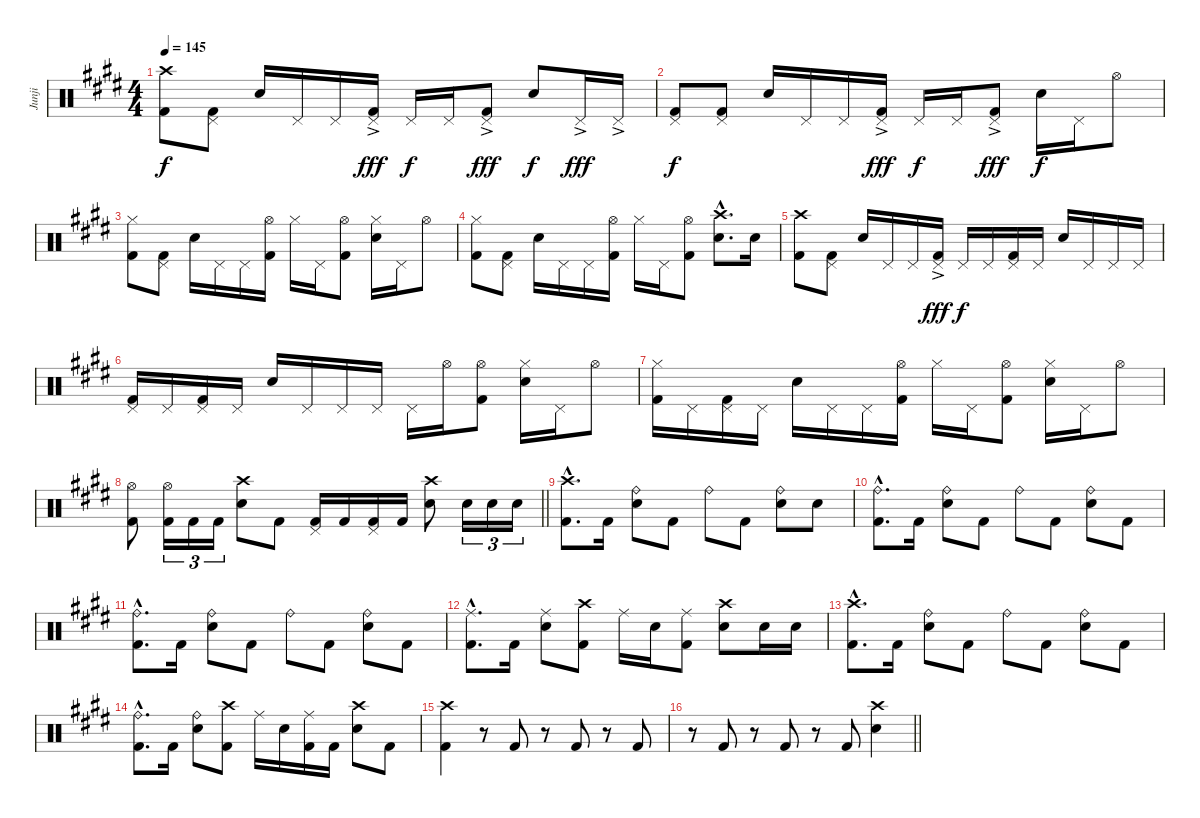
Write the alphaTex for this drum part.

\track ("Junji" "Junji") {instrument percussion}
\staff {score}
\articulation defaults
\ts (4 4)
\tempo 145
\clef neutral
\ks c#minor
("Crash high (hit)" "Kick (hit) 2").8{dy f} ("Pedal Hi-Hat (hit)" "Kick (hit) 2").8 "Snare (hit) 2".16 "Pedal Hi-Hat (hit)".16 "Pedal Hi-Hat (hit)".16 ("Pedal Hi-Hat (hit)"{ac} "Kick (hit) 2").16{dy fff} "Pedal Hi-Hat (hit)".16{dy f} "Pedal Hi-Hat (hit)".16 ("Pedal Hi-Hat (hit)"{ac} "Kick (hit) 2").8{dy fff} "Snare (hit) 2".8{dy f} "Pedal Hi-Hat (hit)"{ac}.16{dy fff} "Pedal Hi-Hat (hit)"{ac}.16 |
("Pedal Hi-Hat (hit)" "Kick (hit) 2").8{dy f} ("Pedal Hi-Hat (hit)" "Kick (hit) 2").8 "Snare (hit) 2".16 "Pedal Hi-Hat (hit)".16 "Pedal Hi-Hat (hit)".16 ("Pedal Hi-Hat (hit)"{ac} "Kick (hit) 2").16{dy fff} "Pedal Hi-Hat (hit)".16{dy f} "Pedal Hi-Hat (hit)".16 ("Pedal Hi-Hat (hit)" "Kick (hit) 2"{ac}).8{dy fff} "Snare (hit) 2".16{dy f} "Pedal Hi-Hat (hit)".16 "Hi-Hat (open)".8 |
("Hi-Hat (closed)" "Kick (hit) 2").8 ("Pedal Hi-Hat (hit)" "Kick (hit) 2").8 "Snare (hit) 2".16 "Pedal Hi-Hat (hit)".16 "Pedal Hi-Hat (hit)".16 ("Hi-Hat (open)" "Kick (hit) 2").16 "Hi-Hat (closed)".16 "Pedal Hi-Hat (hit)".16 ("Hi-Hat (open)" "Kick (hit) 2").8 ("Hi-Hat (closed)" "Snare (hit) 2").16 "Pedal Hi-Hat (hit)".16 "Hi-Hat (open)".8 |
("Hi-Hat (closed)" "Kick (hit) 2").8 ("Pedal Hi-Hat (hit)" "Kick (hit) 2").8 "Snare (hit) 2".16 "Pedal Hi-Hat (hit)".16 "Pedal Hi-Hat (hit)".16 ("Hi-Hat (open)" "Kick (hit) 2").16 "Hi-Hat (closed)".16 "Pedal Hi-Hat (hit)".16 ("Hi-Hat (open)" "Kick (hit) 2").8 ("Crash high (hit)"{hac} "Snare (hit) 2"{hac}).8{d} "Snare (hit) 2".16 |
("Crash high (hit)" "Kick (hit) 2").8 ("Pedal Hi-Hat (hit)" "Kick (hit) 2").8 "Snare (hit) 2".16 "Pedal Hi-Hat (hit)".16 "Pedal Hi-Hat (hit)".16 ("Pedal Hi-Hat (hit)"{ac} "Kick (hit) 2").16{dy fff} "Pedal Hi-Hat (hit)".16{dy f} "Pedal Hi-Hat (hit)".16 ("Pedal Hi-Hat (hit)" "Kick (hit) 2").16 "Pedal Hi-Hat (hit)".16 "Snare (hit) 2".16 "Pedal Hi-Hat (hit)".16 "Pedal Hi-Hat (hit)".16 "Pedal Hi-Hat (hit)".16 |
("Pedal Hi-Hat (hit)" "Kick (hit) 2").16 "Pedal Hi-Hat (hit)".16 ("Pedal Hi-Hat (hit)" "Kick (hit) 2").16 "Pedal Hi-Hat (hit)".16 "Snare (hit) 2".16 "Pedal Hi-Hat (hit)".16 "Pedal Hi-Hat (hit)".16 "Pedal Hi-Hat (hit)".16 "Pedal Hi-Hat (hit)".16 "Hi-Hat (open)".16 ("Hi-Hat (open)" "Kick (hit) 2").8 ("Hi-Hat (closed)" "Snare (hit) 2").16 "Pedal Hi-Hat (hit)".16 "Hi-Hat (open)".8 |
("Hi-Hat (closed)" "Kick (hit) 2").16 "Pedal Hi-Hat (hit)".16 ("Pedal Hi-Hat (hit)" "Kick (hit) 2").16 "Pedal Hi-Hat (hit)".16 "Snare (hit) 2".16 "Pedal Hi-Hat (hit)".16 "Pedal Hi-Hat (hit)".16 ("Hi-Hat (open)" "Kick (hit) 2").16 "Hi-Hat (closed)".16 "Pedal Hi-Hat (hit)".16 ("Hi-Hat (open)" "Kick (hit) 2").8 ("Hi-Hat (closed)" "Snare (hit) 2").16 "Pedal Hi-Hat (hit)".16 "Hi-Hat (open)".8 |
\barLineRight lightlight
("Hi-Hat (open)" "Kick (hit) 2").8 ("Hi-Hat (open)" "Kick (hit) 2").16{tu (3 2)} "Kick (hit) 2".16{tu (3 2)} "Kick (hit) 2".16{tu (3 2)} ("Crash high (hit)" "Snare (hit) 2").8 "Kick (hit) 2".8 ("Pedal Hi-Hat (hit)" "Kick (hit) 2").16 "Kick (hit) 2".16 ("Pedal Hi-Hat (hit)" "Kick (hit) 2").16 "Kick (hit) 2".16 ("Crash high (hit)" "Snare (hit) 2").8 "Snare (hit) 2".16{tu (3 2)} "Snare (hit) 2".16{tu (3 2)} "Snare (hit) 2".16{tu (3 2)} |
("Crash high (hit)"{hac} "Kick (hit) 2"{hac}).8{d} "Kick (hit) 2".16 ("Ride (bell)" "Snare (hit) 2").8 "Kick (hit) 2".8 "Ride (bell)".8 "Kick (hit) 2".8 ("Ride (bell)" "Snare (hit) 2").8 "Snare (hit) 2".8 |
("Ride (bell)"{hac} "Kick (hit) 2"{hac}).8{d} "Kick (hit) 2".16 ("Ride (bell)" "Snare (hit) 2").8 "Kick (hit) 2".8 "Ride (bell)".8 "Kick (hit) 2".8 ("Ride (bell)" "Snare (hit) 2").8 "Kick (hit) 2".8 |
("Ride (bell)"{hac} "Kick (hit) 2"{hac}).8{d} "Kick (hit) 2".16 ("Ride (bell)" "Snare (hit) 2").8 "Kick (hit) 2".8 "Ride (bell)".8 "Kick (hit) 2".8 ("Ride (bell)" "Snare (hit) 2").8 "Kick (hit) 2".8 |
("Ride (middle)"{hac} "Kick (hit) 2"{hac}).8{d} "Kick (hit) 2".16 ("Ride (middle)" "Snare (hit) 2").8 ("Crash high (hit)" "Kick (hit) 2").8 "Ride (middle)".16 "Snare (hit) 2".16 ("Ride (middle)" "Kick (hit) 2").8 ("Crash high (hit)" "Snare (hit) 2").8 "Electric Snare (hit)".16 "Electric Snare (hit)".16 |
("Crash high (hit)"{hac} "Kick (hit) 2"{hac}).8{d} "Kick (hit) 2".16 ("Ride (bell)" "Snare (hit) 2").8 "Kick (hit) 2".8 "Ride (bell)".8 "Kick (hit) 2".8 ("Ride (bell)" "Snare (hit) 2").8 "Kick (hit) 2".8 |
("Ride (bell)"{hac} "Kick (hit) 2"{hac}).8{d} "Kick (hit) 2".16 ("Ride (bell)" "Snare (hit) 2").8 ("Crash high (hit)" "Kick (hit) 2").8 "Ride (middle)".16 "Snare (hit) 2".16 ("Ride (middle)" "Kick (hit) 2").16 "Kick (hit) 2".16 ("Crash high (hit)" "Snare (hit) 2").8 "Kick (hit) 2".8 |
("Crash high (hit)" "Kick (hit) 2").4 r.8 "Kick (hit) 2".8 r.8 "Kick (hit) 2".8 r.8 "Kick (hit) 2".8 |
\barLineRight lightlight
r.8 "Kick (hit) 2".8 r.8 "Kick (hit) 2".8 r.8 "Kick (hit) 2".8 ("Crash high (hit)" "Snare (hit) 2").4
